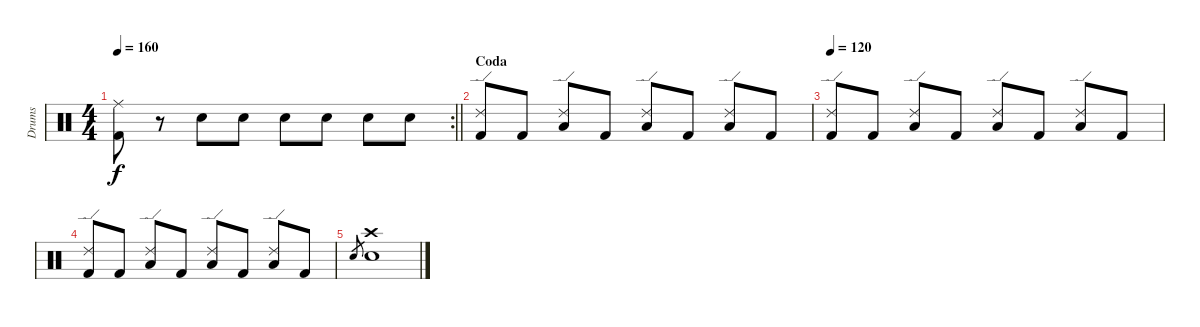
\track ("Drums" "Drums") {instrument percussion}
\staff {score}
\articulation defaults
\rc 2
\ts (4 4)
\tempo 160
\clef neutral
\barLineRight lightlight
\ks c
("Ride (middle)" "Kick (hit) 2").8{dy f} r.8 "Snare (hit) 2".8 "Snare (hit) 2".8 "Snare (hit) 2".8 "Snare (hit) 2".8 "Snare (hit) 2".8 "Snare (hit) 2".8 |
\section ("" "Coda")
("Ride (edge) 2" "Kick (hit) 2").8 "Kick (hit) 2".8 ("Ride (edge) 2" "Low Floor Tom (hit)").8 "Kick (hit) 2".8 ("Ride (edge) 2" "Low Tom (hit)").8 "Kick (hit) 2".8 ("Ride (edge) 2" "Low Floor Tom (hit)").8 "Kick (hit) 2".8 |
\tempo 120
("Ride (edge) 2" "Kick (hit) 2").8 "Kick (hit) 2".8 ("Ride (edge) 2" "Low Floor Tom (hit)").8 "Kick (hit) 2".8 ("Ride (edge) 2" "Low Tom (hit)").8 "Kick (hit) 2".8 ("Ride (edge) 2" "Low Floor Tom (hit)").8 "Kick (hit) 2".8 |
("Ride (edge) 2" "Kick (hit) 2").8 "Kick (hit) 2".8 ("Ride (edge) 2" "Low Floor Tom (hit)").8 "Kick (hit) 2".8 ("Ride (edge) 2" "Low Tom (hit)").8 "Kick (hit) 2".8 ("Ride (edge) 2" "Low Floor Tom (hit)").8 "Kick (hit) 2".8 |
"Snare (hit) 2".8{gr} ("Crash high (hit)" "Snare (hit) 2").1
